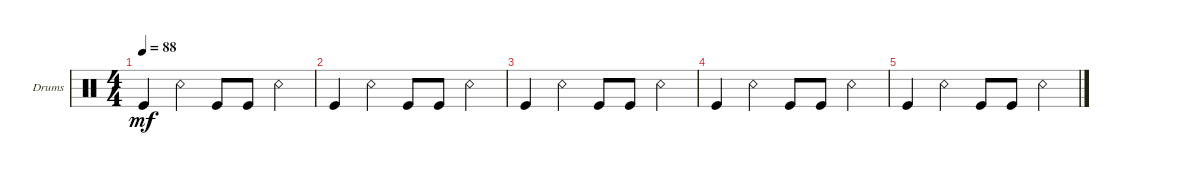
\bracketExtendMode groupsimilarinstruments
\firstSystemTrackNameOrientation horizontal
\otherSystemsTrackNameOrientation horizontal
\track ("Drumkit" "Drums") {instrument percussion}
\staff {score}
\articulation defaults
\ts (4 4)
\tempo 88
\clef neutral
\scale
0.333333
\ks c "Kick (hit)".4{dy mf} "Snare (rim shot)".4 "Kick (hit)".8 "Kick (hit)".8 "Snare (rim shot)".4
|
\scale
0.333333 "Kick (hit)".4 "Snare (rim shot)".4 "Kick (hit)".8 "Kick (hit)".8 "Snare (rim shot)".4 |
\scale
0.333333 "Kick (hit)".4 "Snare (rim shot)".4 "Kick (hit)".8 "Kick (hit)".8 "Snare (rim shot)".4 |
"Kick (hit)".4 "Snare (rim shot)".4 "Kick (hit)".8 "Kick (hit)".8 "Snare (rim shot)".4 |
"Kick (hit)".4 "Snare (rim shot)".4 "Kick (hit)".8 "Kick (hit)".8 "Snare (rim shot)".4
